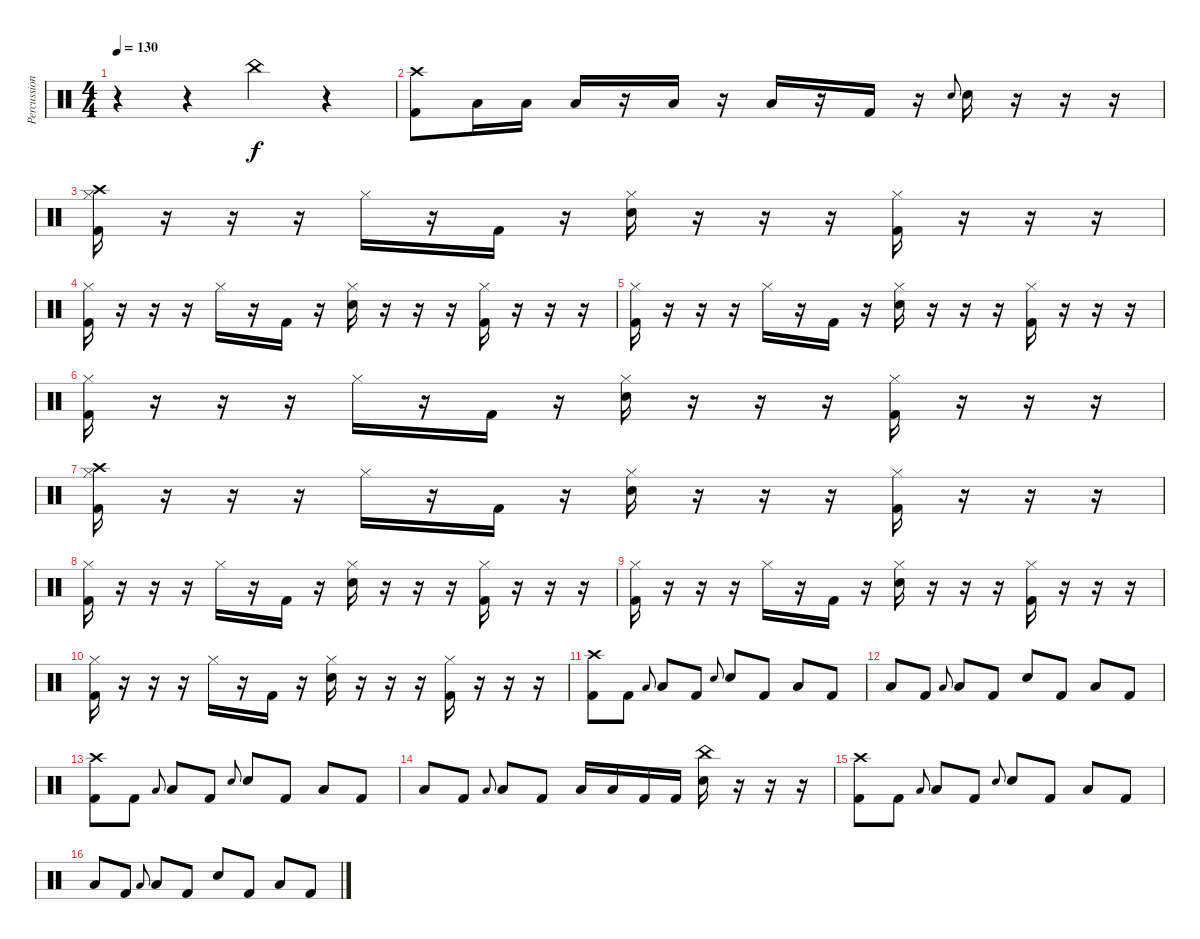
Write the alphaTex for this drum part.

\track ("Percussion" "Percussion") {instrument percussion}
\staff {score}
\articulation defaults
\ts (4 4)
\tempo 130
\clef neutral
\ks c
r.4{dy f} r.4 "China (hit)".4 r.4 |
("Crash high (hit)" "Kick (hit) 2").8 "Low Tom (hit)".16 "Low Tom (hit)".16 "Low Tom (hit)".16 r.16 "Low Tom (hit)".16 r.16 "Low Floor Tom (hit)".16 r.16 "Kick (hit) 2".16 r.16 "Electric Snare (hit)".8{gr onbeat} "Electric Snare (hit)".16 r.16 r.16 r.16 |
("Crash high (hit)" "Hi-Hat (closed)" "Kick (hit) 2").16 r.16 r.16 r.16 "Hi-Hat (closed)".16 r.16 "Kick (hit) 2".16 r.16 ("Hi-Hat (closed)" "Electric Snare (hit)").16 r.16 r.16 r.16 ("Hi-Hat (closed)" "Kick (hit) 2").16 r.16 r.16 r.16 |
("Hi-Hat (closed)" "Kick (hit) 2").16 r.16 r.16 r.16 "Hi-Hat (closed)".16 r.16 "Kick (hit) 2".16 r.16 ("Hi-Hat (closed)" "Electric Snare (hit)").16 r.16 r.16 r.16 ("Hi-Hat (closed)" "Kick (hit) 2").16 r.16 r.16 r.16 |
("Hi-Hat (closed)" "Kick (hit) 2").16 r.16 r.16 r.16 "Hi-Hat (closed)".16 r.16 "Kick (hit) 2".16 r.16 ("Hi-Hat (closed)" "Electric Snare (hit)").16 r.16 r.16 r.16 ("Hi-Hat (closed)" "Kick (hit) 2").16 r.16 r.16 r.16 |
("Hi-Hat (closed)" "Kick (hit) 2").16 r.16 r.16 r.16 "Hi-Hat (closed)".16 r.16 "Kick (hit) 2".16 r.16 ("Hi-Hat (closed)" "Electric Snare (hit)").16 r.16 r.16 r.16 ("Hi-Hat (closed)" "Kick (hit) 2").16 r.16 r.16 r.16 |
("Crash high (hit)" "Hi-Hat (closed)" "Kick (hit) 2").16 r.16 r.16 r.16 "Hi-Hat (closed)".16 r.16 "Kick (hit) 2".16 r.16 ("Hi-Hat (closed)" "Electric Snare (hit)").16 r.16 r.16 r.16 ("Hi-Hat (closed)" "Kick (hit) 2").16 r.16 r.16 r.16 |
("Hi-Hat (closed)" "Kick (hit) 2").16 r.16 r.16 r.16 "Hi-Hat (closed)".16 r.16 "Kick (hit) 2".16 r.16 ("Hi-Hat (closed)" "Electric Snare (hit)").16 r.16 r.16 r.16 ("Hi-Hat (closed)" "Kick (hit) 2").16 r.16 r.16 r.16 |
("Hi-Hat (closed)" "Kick (hit) 2").16 r.16 r.16 r.16 "Hi-Hat (closed)".16 r.16 "Kick (hit) 2".16 r.16 ("Hi-Hat (closed)" "Electric Snare (hit)").16 r.16 r.16 r.16 ("Hi-Hat (closed)" "Kick (hit) 2").16 r.16 r.16 r.16 |
("Hi-Hat (closed)" "Kick (hit) 2").16 r.16 r.16 r.16 "Hi-Hat (closed)".16 r.16 "Kick (hit) 2".16 r.16 ("Hi-Hat (closed)" "Electric Snare (hit)").16 r.16 r.16 r.16 ("Hi-Hat (closed)" "Kick (hit) 2").16 r.16 r.16 r.16 |
("Crash high (hit)" "Kick (hit) 2").8 "Kick (hit) 2".8 "Low Floor Tom (hit)".8{gr onbeat} "Low Floor Tom (hit)".8 "Kick (hit) 2".8 "Electric Snare (hit)".8{gr onbeat} "Electric Snare (hit)".8 "Kick (hit) 2".8 "Low Floor Tom (hit)".8 "Kick (hit) 2".8 |
"Low Floor Tom (hit)".8 "Kick (hit) 2".8 "Low Floor Tom (hit)".8{gr onbeat} "Low Floor Tom (hit)".8 "Kick (hit) 2".8 "Electric Snare (hit)".8 "Kick (hit) 2".8 "Low Floor Tom (hit)".8 "Kick (hit) 2".8 |
("Crash high (hit)" "Kick (hit) 2").8 "Kick (hit) 2".8 "Low Floor Tom (hit)".8{gr onbeat} "Low Floor Tom (hit)".8 "Kick (hit) 2".8 "Electric Snare (hit)".8{gr onbeat} "Electric Snare (hit)".8 "Kick (hit) 2".8 "Low Floor Tom (hit)".8 "Kick (hit) 2".8 |
"Low Floor Tom (hit)".8 "Kick (hit) 2".8 "Low Floor Tom (hit)".8{gr onbeat} "Low Floor Tom (hit)".8 "Kick (hit) 2".8 "Low Floor Tom (hit)".16 "Low Floor Tom (hit)".16 "Kick (hit) 2".16 "Kick (hit) 2".16 ("China (hit)" "Electric Snare (hit)").16 r.16 r.16 r.16 |
("Crash high (hit)" "Kick (hit) 2").8 "Kick (hit) 2".8 "Low Floor Tom (hit)".8{gr onbeat} "Low Floor Tom (hit)".8 "Kick (hit) 2".8 "Electric Snare (hit)".8{gr onbeat} "Electric Snare (hit)".8 "Kick (hit) 2".8 "Low Floor Tom (hit)".8 "Kick (hit) 2".8 |
"Low Floor Tom (hit)".8 "Kick (hit) 2".8 "Low Floor Tom (hit)".8{gr onbeat} "Low Floor Tom (hit)".8 "Kick (hit) 2".8 "Electric Snare (hit)".8 "Kick (hit) 2".8 "Low Floor Tom (hit)".8 "Kick (hit) 2".8
